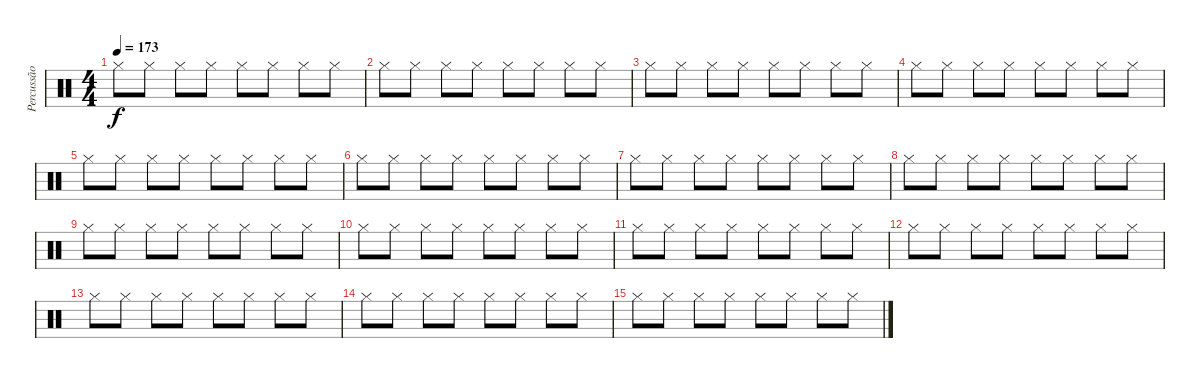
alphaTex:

\track ("Percussão" "Percussão") {instrument percussion}
\staff {score}
\articulation defaults
\ts (4 4)
\tempo 173
\clef neutral
\ks c "Hi-Hat (closed)".8{dy f} "Hi-Hat (closed)".8 "Hi-Hat (closed)".8 "Hi-Hat (closed)".8 "Hi-Hat (closed)".8 "Hi-Hat (closed)".8 "Hi-Hat (closed)".8 "Hi-Hat (closed)".8
|
"Hi-Hat (closed)".8 "Hi-Hat (closed)".8 "Hi-Hat (closed)".8 "Hi-Hat (closed)".8 "Hi-Hat (closed)".8 "Hi-Hat (closed)".8 "Hi-Hat (closed)".8 "Hi-Hat (closed)".8 |
"Hi-Hat (closed)".8 "Hi-Hat (closed)".8 "Hi-Hat (closed)".8 "Hi-Hat (closed)".8 "Hi-Hat (closed)".8 "Hi-Hat (closed)".8 "Hi-Hat (closed)".8 "Hi-Hat (closed)".8 |
"Hi-Hat (closed)".8 "Hi-Hat (closed)".8 "Hi-Hat (closed)".8 "Hi-Hat (closed)".8 "Hi-Hat (closed)".8 "Hi-Hat (closed)".8 "Hi-Hat (closed)".8 "Hi-Hat (closed)".8 |
"Hi-Hat (closed)".8 "Hi-Hat (closed)".8 "Hi-Hat (closed)".8 "Hi-Hat (closed)".8 "Hi-Hat (closed)".8 "Hi-Hat (closed)".8 "Hi-Hat (closed)".8 "Hi-Hat (closed)".8 |
"Hi-Hat (closed)".8 "Hi-Hat (closed)".8 "Hi-Hat (closed)".8 "Hi-Hat (closed)".8 "Hi-Hat (closed)".8 "Hi-Hat (closed)".8 "Hi-Hat (closed)".8 "Hi-Hat (closed)".8 |
"Hi-Hat (closed)".8 "Hi-Hat (closed)".8 "Hi-Hat (closed)".8 "Hi-Hat (closed)".8 "Hi-Hat (closed)".8 "Hi-Hat (closed)".8 "Hi-Hat (closed)".8 "Hi-Hat (closed)".8 |
"Hi-Hat (closed)".8 "Hi-Hat (closed)".8 "Hi-Hat (closed)".8 "Hi-Hat (closed)".8 "Hi-Hat (closed)".8 "Hi-Hat (closed)".8 "Hi-Hat (closed)".8 "Hi-Hat (closed)".8 |
"Hi-Hat (closed)".8 "Hi-Hat (closed)".8 "Hi-Hat (closed)".8 "Hi-Hat (closed)".8 "Hi-Hat (closed)".8 "Hi-Hat (closed)".8 "Hi-Hat (closed)".8 "Hi-Hat (closed)".8 |
"Hi-Hat (closed)".8 "Hi-Hat (closed)".8 "Hi-Hat (closed)".8 "Hi-Hat (closed)".8 "Hi-Hat (closed)".8 "Hi-Hat (closed)".8 "Hi-Hat (closed)".8 "Hi-Hat (closed)".8 |
"Hi-Hat (closed)".8 "Hi-Hat (closed)".8 "Hi-Hat (closed)".8 "Hi-Hat (closed)".8 "Hi-Hat (closed)".8 "Hi-Hat (closed)".8 "Hi-Hat (closed)".8 "Hi-Hat (closed)".8 |
"Hi-Hat (closed)".8 "Hi-Hat (closed)".8 "Hi-Hat (closed)".8 "Hi-Hat (closed)".8 "Hi-Hat (closed)".8 "Hi-Hat (closed)".8 "Hi-Hat (closed)".8 "Hi-Hat (closed)".8 |
"Hi-Hat (closed)".8 "Hi-Hat (closed)".8 "Hi-Hat (closed)".8 "Hi-Hat (closed)".8 "Hi-Hat (closed)".8 "Hi-Hat (closed)".8 "Hi-Hat (closed)".8 "Hi-Hat (closed)".8 |
"Hi-Hat (closed)".8 "Hi-Hat (closed)".8 "Hi-Hat (closed)".8 "Hi-Hat (closed)".8 "Hi-Hat (closed)".8 "Hi-Hat (closed)".8 "Hi-Hat (closed)".8 "Hi-Hat (closed)".8 |
"Hi-Hat (closed)".8 "Hi-Hat (closed)".8 "Hi-Hat (closed)".8 "Hi-Hat (closed)".8 "Hi-Hat (closed)".8 "Hi-Hat (closed)".8 "Hi-Hat (closed)".8 "Hi-Hat (closed)".8
